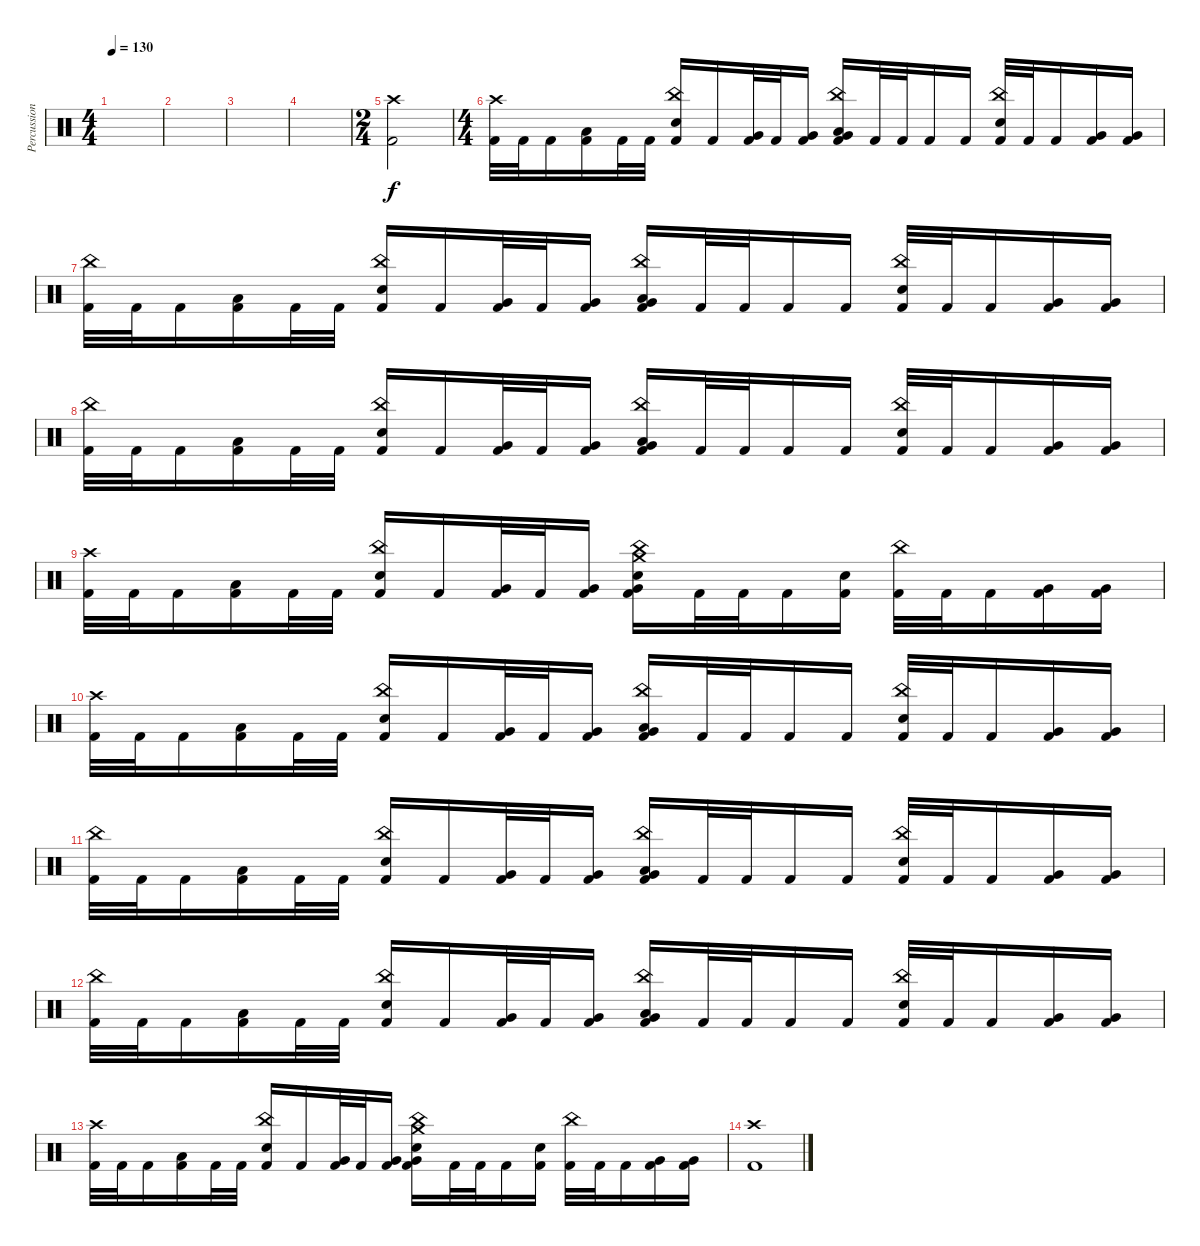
\track ("Percussions" "Percussion") {instrument percussion}
\staff {score}
\articulation defaults
\ts (4 4)
\tempo 130
\clef neutral
\ks c
|
|
|
|
\ts (2 4)
("Crash high (hit)" "Kick (hit) 2").2 |
\ts (4 4)
("Crash high (hit)" "Kick (hit) 2").32 "Kick (hit) 2".32 "Kick (hit) 2".16 ("Low Floor Tom (hit)" "Kick (hit) 2").16 "Kick (hit) 2".32 "Kick (hit) 2".32 ("China (hit)" "Electric Snare (hit)" "Kick (hit) 2").16 "Kick (hit) 2".16 ("Very Low Tom (hit)" "Kick (hit) 2").32 "Kick (hit) 2".32 ("Very Low Tom (hit)" "Kick (hit) 2").16 ("China (hit)" "Low Tom (hit)" "Very Low Tom (hit)" "Kick (hit) 2").16 "Kick (hit) 2".32 "Kick (hit) 2".32 "Kick (hit) 2".16 "Kick (hit) 2".16 ("China (hit)" "Electric Snare (hit)" "Kick (hit) 2").32 "Kick (hit) 2".32 "Kick (hit) 2".16 ("Very Low Tom (hit)" "Kick (hit) 2").16 ("Very Low Tom (hit)" "Kick (hit) 2").16 |
("China (hit)" "Kick (hit) 2").32 "Kick (hit) 2".32 "Kick (hit) 2".16 ("Low Floor Tom (hit)" "Kick (hit) 2").16 "Kick (hit) 2".32 "Kick (hit) 2".32 ("China (hit)" "Electric Snare (hit)" "Kick (hit) 2").16 "Kick (hit) 2".16 ("Very Low Tom (hit)" "Kick (hit) 2").32 "Kick (hit) 2".32 ("Very Low Tom (hit)" "Kick (hit) 2").16 ("China (hit)" "Low Tom (hit)" "Very Low Tom (hit)" "Kick (hit) 2").16 "Kick (hit) 2".32 "Kick (hit) 2".32 "Kick (hit) 2".16 "Kick (hit) 2".16 ("China (hit)" "Electric Snare (hit)" "Kick (hit) 2").32 "Kick (hit) 2".32 "Kick (hit) 2".16 ("Very Low Tom (hit)" "Kick (hit) 2").16 ("Very Low Tom (hit)" "Kick (hit) 2").16 |
("China (hit)" "Kick (hit) 2").32 "Kick (hit) 2".32 "Kick (hit) 2".16 ("Low Floor Tom (hit)" "Kick (hit) 2").16 "Kick (hit) 2".32 "Kick (hit) 2".32 ("China (hit)" "Electric Snare (hit)" "Kick (hit) 2").16 "Kick (hit) 2".16 ("Very Low Tom (hit)" "Kick (hit) 2").32 "Kick (hit) 2".32 ("Very Low Tom (hit)" "Kick (hit) 2").16 ("China (hit)" "Low Tom (hit)" "Very Low Tom (hit)" "Kick (hit) 2").16 "Kick (hit) 2".32 "Kick (hit) 2".32 "Kick (hit) 2".16 "Kick (hit) 2".16 ("China (hit)" "Electric Snare (hit)" "Kick (hit) 2").32 "Kick (hit) 2".32 "Kick (hit) 2".16 ("Very Low Tom (hit)" "Kick (hit) 2").16 ("Very Low Tom (hit)" "Kick (hit) 2").16 |
("Crash high (hit)" "Kick (hit) 2").32 "Kick (hit) 2".32 "Kick (hit) 2".16 ("Low Floor Tom (hit)" "Kick (hit) 2").16 "Kick (hit) 2".32 "Kick (hit) 2".32 ("China (hit)" "Electric Snare (hit)" "Kick (hit) 2").16 "Kick (hit) 2".16 ("Very Low Tom (hit)" "Kick (hit) 2").32 "Kick (hit) 2".32 ("Very Low Tom (hit)" "Kick (hit) 2").16 ("Crash medium (hit)" "China (hit)" "Electric Snare (hit)" "Very Low Tom (hit)" "Kick (hit) 2").16 "Kick (hit) 2".32 "Kick (hit) 2".32 "Kick (hit) 2".16 ("Electric Snare (hit)" "Kick (hit) 2").16 ("China (hit)" "Kick (hit) 2").32 "Kick (hit) 2".32 "Kick (hit) 2".16 ("Very Low Tom (hit)" "Kick (hit) 2").16 ("Very Low Tom (hit)" "Kick (hit) 2").16 |
("Crash high (hit)" "Kick (hit) 2").32 "Kick (hit) 2".32 "Kick (hit) 2".16 ("Low Floor Tom (hit)" "Kick (hit) 2").16 "Kick (hit) 2".32 "Kick (hit) 2".32 ("China (hit)" "Electric Snare (hit)" "Kick (hit) 2").16 "Kick (hit) 2".16 ("Very Low Tom (hit)" "Kick (hit) 2").32 "Kick (hit) 2".32 ("Very Low Tom (hit)" "Kick (hit) 2").16 ("China (hit)" "Low Tom (hit)" "Very Low Tom (hit)" "Kick (hit) 2").16 "Kick (hit) 2".32 "Kick (hit) 2".32 "Kick (hit) 2".16 "Kick (hit) 2".16 ("China (hit)" "Electric Snare (hit)" "Kick (hit) 2").32 "Kick (hit) 2".32 "Kick (hit) 2".16 ("Very Low Tom (hit)" "Kick (hit) 2").16 ("Very Low Tom (hit)" "Kick (hit) 2").16 |
("China (hit)" "Kick (hit) 2").32 "Kick (hit) 2".32 "Kick (hit) 2".16 ("Low Floor Tom (hit)" "Kick (hit) 2").16 "Kick (hit) 2".32 "Kick (hit) 2".32 ("China (hit)" "Electric Snare (hit)" "Kick (hit) 2").16 "Kick (hit) 2".16 ("Very Low Tom (hit)" "Kick (hit) 2").32 "Kick (hit) 2".32 ("Very Low Tom (hit)" "Kick (hit) 2").16 ("China (hit)" "Low Tom (hit)" "Very Low Tom (hit)" "Kick (hit) 2").16 "Kick (hit) 2".32 "Kick (hit) 2".32 "Kick (hit) 2".16 "Kick (hit) 2".16 ("China (hit)" "Electric Snare (hit)" "Kick (hit) 2").32 "Kick (hit) 2".32 "Kick (hit) 2".16 ("Very Low Tom (hit)" "Kick (hit) 2").16 ("Very Low Tom (hit)" "Kick (hit) 2").16 |
("China (hit)" "Kick (hit) 2").32 "Kick (hit) 2".32 "Kick (hit) 2".16 ("Low Floor Tom (hit)" "Kick (hit) 2").16 "Kick (hit) 2".32 "Kick (hit) 2".32 ("China (hit)" "Electric Snare (hit)" "Kick (hit) 2").16 "Kick (hit) 2".16 ("Very Low Tom (hit)" "Kick (hit) 2").32 "Kick (hit) 2".32 ("Very Low Tom (hit)" "Kick (hit) 2").16 ("China (hit)" "Low Tom (hit)" "Very Low Tom (hit)" "Kick (hit) 2").16 "Kick (hit) 2".32 "Kick (hit) 2".32 "Kick (hit) 2".16 "Kick (hit) 2".16 ("China (hit)" "Electric Snare (hit)" "Kick (hit) 2").32 "Kick (hit) 2".32 "Kick (hit) 2".16 ("Very Low Tom (hit)" "Kick (hit) 2").16 ("Very Low Tom (hit)" "Kick (hit) 2").16 |
("Crash high (hit)" "Kick (hit) 2").32 "Kick (hit) 2".32 "Kick (hit) 2".16 ("Low Floor Tom (hit)" "Kick (hit) 2").16 "Kick (hit) 2".32 "Kick (hit) 2".32 ("China (hit)" "Electric Snare (hit)" "Kick (hit) 2").16 "Kick (hit) 2".16 ("Very Low Tom (hit)" "Kick (hit) 2").32 "Kick (hit) 2".32 ("Very Low Tom (hit)" "Kick (hit) 2").16 ("Crash medium (hit)" "China (hit)" "Electric Snare (hit)" "Very Low Tom (hit)" "Kick (hit) 2").16 "Kick (hit) 2".32 "Kick (hit) 2".32 "Kick (hit) 2".16 ("Electric Snare (hit)" "Kick (hit) 2").16 ("China (hit)" "Kick (hit) 2").32 "Kick (hit) 2".32 "Kick (hit) 2".16 ("Very Low Tom (hit)" "Kick (hit) 2").16 ("Very Low Tom (hit)" "Kick (hit) 2").16 |
("Crash high (hit)" "Kick (hit) 2").1
